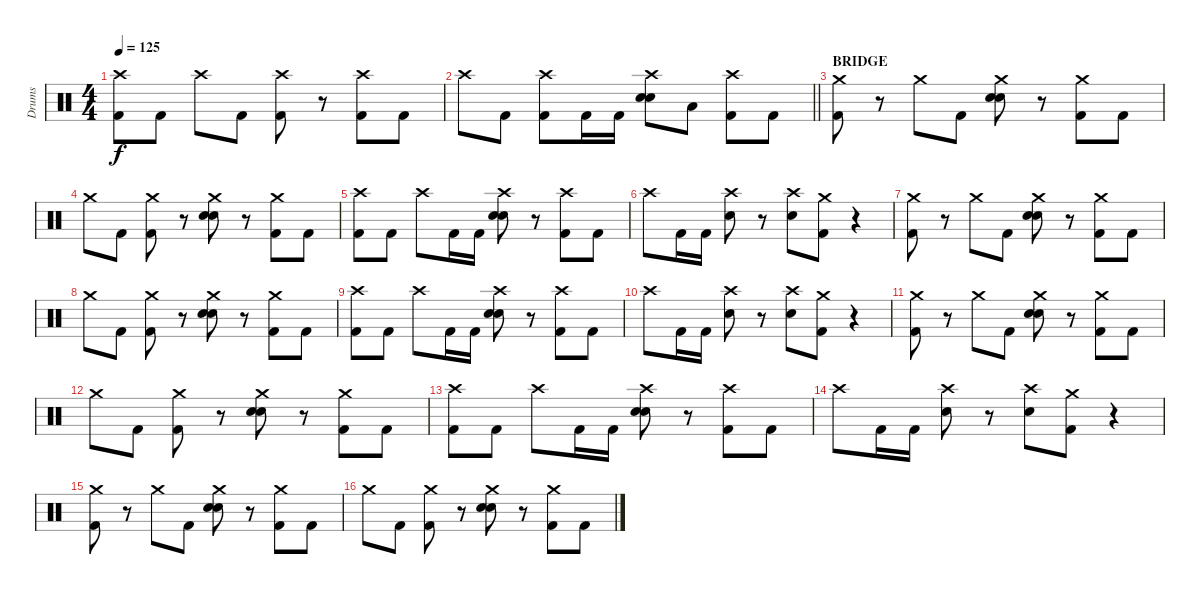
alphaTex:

\track ("Drums" "Drums") {instrument percussion}
\staff {score}
\articulation defaults
\ts (4 4)
\tempo 125
\clef neutral
\ks c
("Crash high (hit)" "Kick (hit) 2").8{dy f} "Kick (hit) 2".8 "Crash high (hit)".8 "Kick (hit) 2".8 ("Crash high (hit)" "Kick (hit) 2").8 r.8 ("Crash high (hit)" "Kick (hit) 2").8 "Kick (hit) 2".8 |
\barLineRight lightlight "Crash high (hit)".8 "Kick (hit) 2".8
("Crash high (hit)" "Kick (hit) 2").8 "Kick (hit) 2".16 "Kick (hit) 2".16 ("Crash high (hit)" "Snare (hit) 2" "Electric Snare (hit)").8 "Low Floor Tom (hit)".8 ("Crash high (hit)" "Kick (hit) 2").8 "Kick (hit) 2".8 |
\section ("" "BRIDGE")
("Crash medium (hit)" "Kick (hit) 2").8 r.8 "Crash medium (hit)".8 "Kick (hit) 2".8 ("Crash medium (hit)" "Snare (hit) 2" "Electric Snare (hit)").8 r.8 ("Crash medium (hit)" "Kick (hit) 2").8 "Kick (hit) 2".8 |
"Crash medium (hit)".8 "Kick (hit) 2".8 ("Crash medium (hit)" "Kick (hit) 2").8 r.8 ("Crash medium (hit)" "Snare (hit) 2" "Electric Snare (hit)").8 r.8 ("Crash medium (hit)" "Kick (hit) 2").8 "Kick (hit) 2".8 |
("Crash high (hit)" "Kick (hit) 2").8 "Kick (hit) 2".8 "Crash high (hit)".8 "Kick (hit) 2".16 "Kick (hit) 2".16 ("Crash high (hit)" "Snare (hit) 2" "Electric Snare (hit)").8 r.8 ("Crash high (hit)" "Kick (hit) 2").8 "Kick (hit) 2".8 |
"Crash high (hit)".8 "Kick (hit) 2".16 "Kick (hit) 2".16 ("Crash high (hit)" "Snare (hit) 2").8 r.8 ("Crash high (hit)" "Snare (hit) 2").8 ("Crash medium (hit)" "Kick (hit) 2").8 r.4 |
("Crash medium (hit)" "Kick (hit) 2").8 r.8 "Crash medium (hit)".8 "Kick (hit) 2".8 ("Crash medium (hit)" "Snare (hit) 2" "Electric Snare (hit)").8 r.8 ("Crash medium (hit)" "Kick (hit) 2").8 "Kick (hit) 2".8 |
"Crash medium (hit)".8 "Kick (hit) 2".8 ("Crash medium (hit)" "Kick (hit) 2").8 r.8 ("Crash medium (hit)" "Snare (hit) 2" "Electric Snare (hit)").8 r.8 ("Crash medium (hit)" "Kick (hit) 2").8 "Kick (hit) 2".8 |
("Crash high (hit)" "Kick (hit) 2").8 "Kick (hit) 2".8 "Crash high (hit)".8 "Kick (hit) 2".16 "Kick (hit) 2".16 ("Crash high (hit)" "Snare (hit) 2" "Electric Snare (hit)").8 r.8 ("Crash high (hit)" "Kick (hit) 2").8 "Kick (hit) 2".8 |
"Crash high (hit)".8 "Kick (hit) 2".16 "Kick (hit) 2".16 ("Crash high (hit)" "Snare (hit) 2").8 r.8 ("Crash high (hit)" "Snare (hit) 2").8 ("Crash medium (hit)" "Kick (hit) 2").8 r.4 |
("Crash medium (hit)" "Kick (hit) 2").8 r.8 "Crash medium (hit)".8 "Kick (hit) 2".8 ("Crash medium (hit)" "Snare (hit) 2" "Electric Snare (hit)").8 r.8 ("Crash medium (hit)" "Kick (hit) 2").8 "Kick (hit) 2".8 |
"Crash medium (hit)".8 "Kick (hit) 2".8 ("Crash medium (hit)" "Kick (hit) 2").8 r.8 ("Crash medium (hit)" "Snare (hit) 2" "Electric Snare (hit)").8 r.8 ("Crash medium (hit)" "Kick (hit) 2").8 "Kick (hit) 2".8 |
("Crash high (hit)" "Kick (hit) 2").8 "Kick (hit) 2".8 "Crash high (hit)".8 "Kick (hit) 2".16 "Kick (hit) 2".16 ("Crash high (hit)" "Snare (hit) 2" "Electric Snare (hit)").8 r.8 ("Crash high (hit)" "Kick (hit) 2").8 "Kick (hit) 2".8 |
"Crash high (hit)".8 "Kick (hit) 2".16 "Kick (hit) 2".16 ("Crash high (hit)" "Snare (hit) 2").8 r.8 ("Crash high (hit)" "Snare (hit) 2").8 ("Crash medium (hit)" "Kick (hit) 2").8 r.4 |
("Crash medium (hit)" "Kick (hit) 2").8 r.8 "Crash medium (hit)".8 "Kick (hit) 2".8 ("Crash medium (hit)" "Snare (hit) 2" "Electric Snare (hit)").8 r.8 ("Crash medium (hit)" "Kick (hit) 2").8 "Kick (hit) 2".8 |
"Crash medium (hit)".8 "Kick (hit) 2".8 ("Crash medium (hit)" "Kick (hit) 2").8 r.8 ("Crash medium (hit)" "Snare (hit) 2" "Electric Snare (hit)").8 r.8 ("Crash medium (hit)" "Kick (hit) 2").8 "Kick (hit) 2".8
